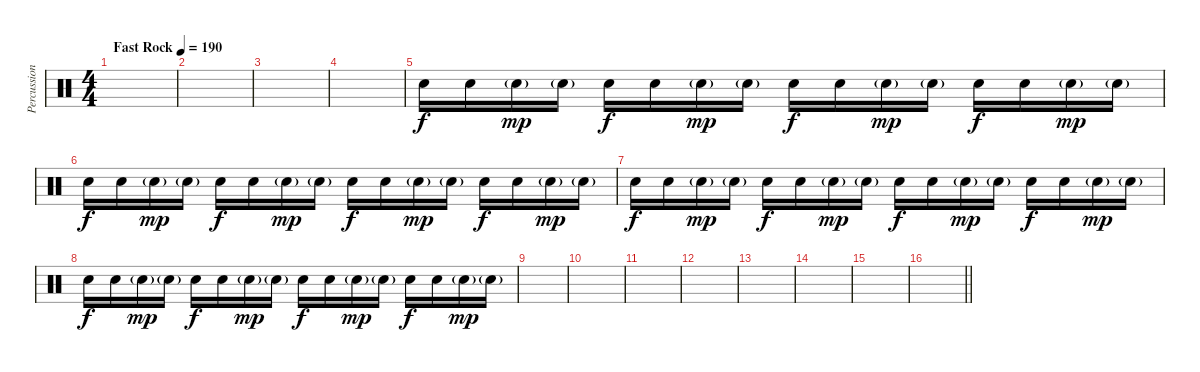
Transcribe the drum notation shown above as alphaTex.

\track ("Percussion" "Percussion") {instrument percussion}
\staff {score}
\articulation defaults
\ts (4 4)
\tempo (190 "Fast Rock")
\clef neutral
\ks c
|
|
|
|
"Electric Snare (hit)".16 "Electric Snare (hit)".16 "Electric Snare (hit)"{g}.16{dy mp} "Electric Snare (hit)"{g}.16 "Electric Snare (hit)".16{dy f} "Electric Snare (hit)".16 "Electric Snare (hit)"{g}.16{dy mp} "Electric Snare (hit)"{g}.16 "Electric Snare (hit)".16{dy f} "Electric Snare (hit)".16 "Electric Snare (hit)"{g}.16{dy mp} "Electric Snare (hit)"{g}.16 "Electric Snare (hit)".16{dy f} "Electric Snare (hit)".16 "Electric Snare (hit)"{g}.16{dy mp} "Electric Snare (hit)"{g}.16 |
"Electric Snare (hit)".16{dy f} "Electric Snare (hit)".16 "Electric Snare (hit)"{g}.16{dy mp} "Electric Snare (hit)"{g}.16 "Electric Snare (hit)".16{dy f} "Electric Snare (hit)".16 "Electric Snare (hit)"{g}.16{dy mp} "Electric Snare (hit)"{g}.16 "Electric Snare (hit)".16{dy f} "Electric Snare (hit)".16 "Electric Snare (hit)"{g}.16{dy mp} "Electric Snare (hit)"{g}.16 "Electric Snare (hit)".16{dy f} "Electric Snare (hit)".16 "Electric Snare (hit)"{g}.16{dy mp} "Electric Snare (hit)"{g}.16 |
"Electric Snare (hit)".16{dy f} "Electric Snare (hit)".16 "Electric Snare (hit)"{g}.16{dy mp} "Electric Snare (hit)"{g}.16 "Electric Snare (hit)".16{dy f} "Electric Snare (hit)".16 "Electric Snare (hit)"{g}.16{dy mp} "Electric Snare (hit)"{g}.16 "Electric Snare (hit)".16{dy f} "Electric Snare (hit)".16 "Electric Snare (hit)"{g}.16{dy mp} "Electric Snare (hit)"{g}.16 "Electric Snare (hit)".16{dy f} "Electric Snare (hit)".16 "Electric Snare (hit)"{g}.16{dy mp} "Electric Snare (hit)"{g}.16 |
"Electric Snare (hit)".16{dy f} "Electric Snare (hit)".16 "Electric Snare (hit)"{g}.16{dy mp} "Electric Snare (hit)"{g}.16 "Electric Snare (hit)".16{dy f} "Electric Snare (hit)".16 "Electric Snare (hit)"{g}.16{dy mp} "Electric Snare (hit)"{g}.16 "Electric Snare (hit)".16{dy f} "Electric Snare (hit)".16 "Electric Snare (hit)"{g}.16{dy mp} "Electric Snare (hit)"{g}.16 "Electric Snare (hit)".16{dy f} "Electric Snare (hit)".16 "Electric Snare (hit)"{g}.16{dy mp} "Electric Snare (hit)"{g}.16 |
|
|
|
|
|
|
|
\barLineRight lightlight
